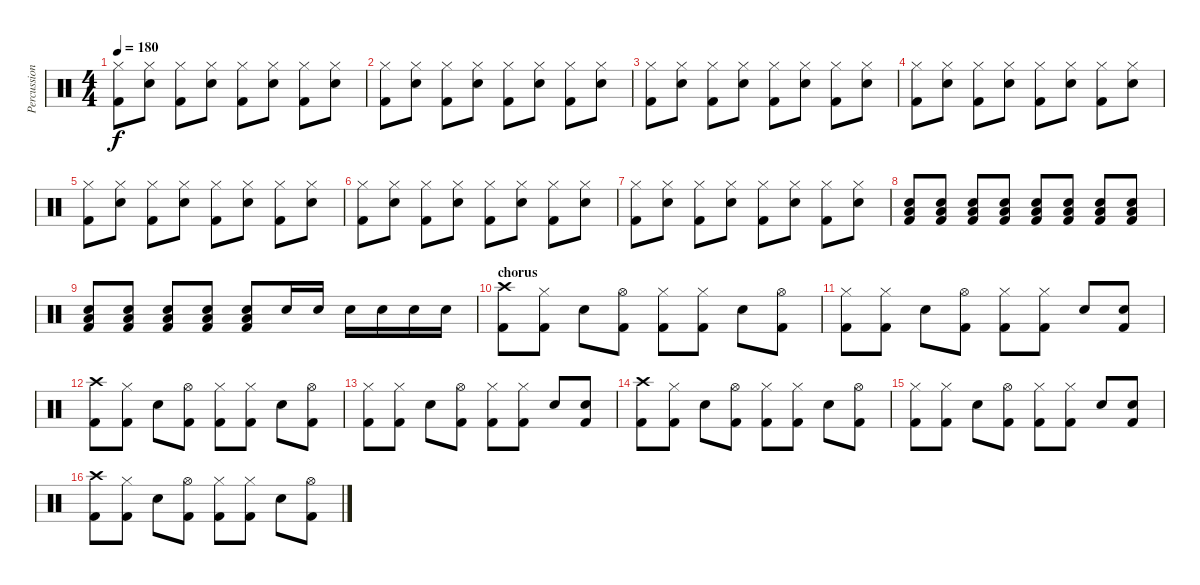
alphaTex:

\track ("Percussion" "Percussion") {instrument percussion}
\staff {score}
\articulation defaults
\ts (4 4)
\tempo 180
\clef neutral
\ks c
("Hi-Hat (closed)" "Kick (hit) 2").8{dy f} ("Hi-Hat (closed)" "Electric Snare (hit)").8 ("Hi-Hat (closed)" "Kick (hit) 2").8 ("Hi-Hat (closed)" "Electric Snare (hit)").8 ("Hi-Hat (closed)" "Kick (hit) 2").8 ("Hi-Hat (closed)" "Electric Snare (hit)").8 ("Hi-Hat (closed)" "Kick (hit) 2").8 ("Hi-Hat (closed)" "Electric Snare (hit)").8 |
("Hi-Hat (closed)" "Kick (hit) 2").8 ("Hi-Hat (closed)" "Electric Snare (hit)").8 ("Hi-Hat (closed)" "Kick (hit) 2").8 ("Hi-Hat (closed)" "Electric Snare (hit)").8 ("Hi-Hat (closed)" "Kick (hit) 2").8 ("Hi-Hat (closed)" "Electric Snare (hit)").8 ("Hi-Hat (closed)" "Kick (hit) 2").8 ("Hi-Hat (closed)" "Electric Snare (hit)").8 |
("Hi-Hat (closed)" "Kick (hit) 2").8 ("Hi-Hat (closed)" "Electric Snare (hit)").8 ("Hi-Hat (closed)" "Kick (hit) 2").8 ("Hi-Hat (closed)" "Electric Snare (hit)").8 ("Hi-Hat (closed)" "Kick (hit) 2").8 ("Hi-Hat (closed)" "Electric Snare (hit)").8 ("Hi-Hat (closed)" "Kick (hit) 2").8 ("Hi-Hat (closed)" "Electric Snare (hit)").8 |
("Hi-Hat (closed)" "Kick (hit) 2").8 ("Hi-Hat (closed)" "Electric Snare (hit)").8 ("Hi-Hat (closed)" "Kick (hit) 2").8 ("Hi-Hat (closed)" "Electric Snare (hit)").8 ("Hi-Hat (closed)" "Kick (hit) 2").8 ("Hi-Hat (closed)" "Electric Snare (hit)").8 ("Hi-Hat (closed)" "Kick (hit) 2").8 ("Hi-Hat (closed)" "Electric Snare (hit)").8 |
("Hi-Hat (closed)" "Kick (hit) 2").8 ("Hi-Hat (closed)" "Electric Snare (hit)").8 ("Hi-Hat (closed)" "Kick (hit) 2").8 ("Hi-Hat (closed)" "Electric Snare (hit)").8 ("Hi-Hat (closed)" "Kick (hit) 2").8 ("Hi-Hat (closed)" "Electric Snare (hit)").8 ("Hi-Hat (closed)" "Kick (hit) 2").8 ("Hi-Hat (closed)" "Electric Snare (hit)").8 |
("Hi-Hat (closed)" "Kick (hit) 2").8 ("Hi-Hat (closed)" "Electric Snare (hit)").8 ("Hi-Hat (closed)" "Kick (hit) 2").8 ("Hi-Hat (closed)" "Electric Snare (hit)").8 ("Hi-Hat (closed)" "Kick (hit) 2").8 ("Hi-Hat (closed)" "Electric Snare (hit)").8 ("Hi-Hat (closed)" "Kick (hit) 2").8 ("Hi-Hat (closed)" "Electric Snare (hit)").8 |
("Hi-Hat (closed)" "Kick (hit) 2").8 ("Hi-Hat (closed)" "Electric Snare (hit)").8 ("Hi-Hat (closed)" "Kick (hit) 2").8 ("Hi-Hat (closed)" "Electric Snare (hit)").8 ("Hi-Hat (closed)" "Kick (hit) 2").8 ("Hi-Hat (closed)" "Electric Snare (hit)").8 ("Hi-Hat (closed)" "Kick (hit) 2").8 ("Hi-Hat (closed)" "Electric Snare (hit)").8 |
("Low Floor Tom (hit)" "Electric Snare (hit)" "Kick (hit) 2").8{volume 9} ("Low Floor Tom (hit)" "Electric Snare (hit)" "Kick (hit) 2").8{volume 12} ("Low Floor Tom (hit)" "Electric Snare (hit)" "Kick (hit) 2").8 ("Low Floor Tom (hit)" "Electric Snare (hit)" "Kick (hit) 2").8 ("Low Floor Tom (hit)" "Electric Snare (hit)" "Kick (hit) 2").8 ("Low Floor Tom (hit)" "Electric Snare (hit)" "Kick (hit) 2").8 ("Low Floor Tom (hit)" "Electric Snare (hit)" "Kick (hit) 2").8 ("Low Floor Tom (hit)" "Electric Snare (hit)" "Kick (hit) 2").8 |
("Low Floor Tom (hit)" "Electric Snare (hit)" "Kick (hit) 2").8 ("Low Floor Tom (hit)" "Electric Snare (hit)" "Kick (hit) 2").8{volume 16} ("Low Floor Tom (hit)" "Electric Snare (hit)" "Kick (hit) 2").8 ("Low Floor Tom (hit)" "Electric Snare (hit)" "Kick (hit) 2").8 ("Low Floor Tom (hit)" "Electric Snare (hit)" "Kick (hit) 2").8 "Electric Snare (hit)".16{volume 13} "Electric Snare (hit)".16 "Electric Snare (hit)".16 "Electric Snare (hit)".16 "Electric Snare (hit)".16 "Electric Snare (hit)".16 |
\section ("" "chorus")
("Crash high (hit)" "Kick (hit) 2").8 ("Hi-Hat (closed)" "Kick (hit) 2").8 "Electric Snare (hit)".8 ("Hi-Hat (open)" "Kick (hit) 2").8 ("Hi-Hat (closed)" "Kick (hit) 2").8 ("Hi-Hat (closed)" "Kick (hit) 2").8 "Electric Snare (hit)".8 ("Hi-Hat (open)" "Kick (hit) 2").8 |
("Hi-Hat (closed)" "Kick (hit) 2").8 ("Hi-Hat (closed)" "Kick (hit) 2").8 "Electric Snare (hit)".8 ("Hi-Hat (open)" "Kick (hit) 2").8 ("Hi-Hat (closed)" "Kick (hit) 2").8 ("Hi-Hat (closed)" "Kick (hit) 2").8 "Electric Snare (hit)".8 ("Electric Snare (hit)" "Kick (hit) 2").8 |
("Crash high (hit)" "Kick (hit) 2").8 ("Hi-Hat (closed)" "Kick (hit) 2").8 "Electric Snare (hit)".8 ("Hi-Hat (open)" "Kick (hit) 2").8 ("Hi-Hat (closed)" "Kick (hit) 2").8 ("Hi-Hat (closed)" "Kick (hit) 2").8 "Electric Snare (hit)".8 ("Hi-Hat (open)" "Kick (hit) 2").8 |
("Hi-Hat (closed)" "Kick (hit) 2").8 ("Hi-Hat (closed)" "Kick (hit) 2").8 "Electric Snare (hit)".8 ("Hi-Hat (open)" "Kick (hit) 2").8 ("Hi-Hat (closed)" "Kick (hit) 2").8 ("Hi-Hat (closed)" "Kick (hit) 2").8 "Electric Snare (hit)".8 ("Electric Snare (hit)" "Kick (hit) 2").8 |
("Crash high (hit)" "Kick (hit) 2").8 ("Hi-Hat (closed)" "Kick (hit) 2").8 "Electric Snare (hit)".8 ("Hi-Hat (open)" "Kick (hit) 2").8 ("Hi-Hat (closed)" "Kick (hit) 2").8 ("Hi-Hat (closed)" "Kick (hit) 2").8 "Electric Snare (hit)".8 ("Hi-Hat (open)" "Kick (hit) 2").8 |
("Hi-Hat (closed)" "Kick (hit) 2").8 ("Hi-Hat (closed)" "Kick (hit) 2").8 "Electric Snare (hit)".8 ("Hi-Hat (open)" "Kick (hit) 2").8 ("Hi-Hat (closed)" "Kick (hit) 2").8 ("Hi-Hat (closed)" "Kick (hit) 2").8 "Electric Snare (hit)".8 ("Electric Snare (hit)" "Kick (hit) 2").8 |
("Crash high (hit)" "Kick (hit) 2").8 ("Hi-Hat (closed)" "Kick (hit) 2").8 "Electric Snare (hit)".8 ("Hi-Hat (open)" "Kick (hit) 2").8 ("Hi-Hat (closed)" "Kick (hit) 2").8 ("Hi-Hat (closed)" "Kick (hit) 2").8 "Electric Snare (hit)".8 ("Hi-Hat (open)" "Kick (hit) 2").8
